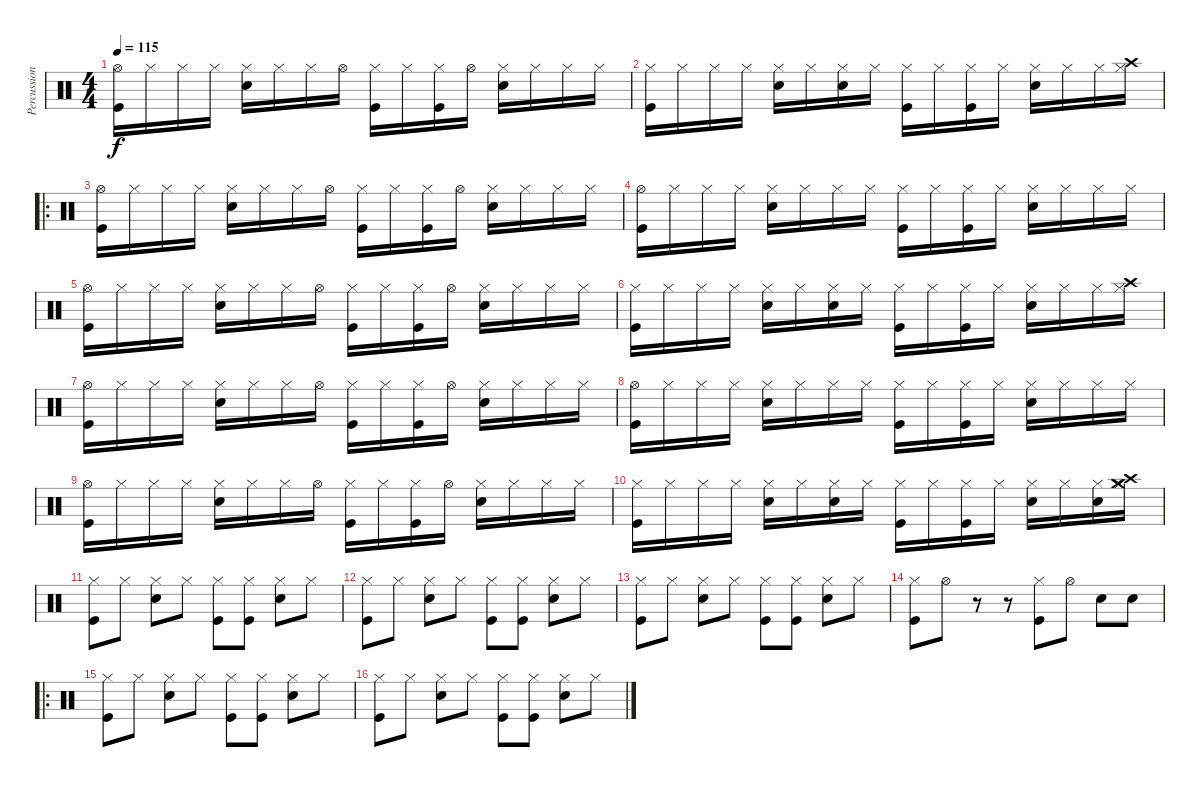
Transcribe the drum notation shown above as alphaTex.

\track ("Percussions" "Percussion") {instrument percussion}
\staff {score}
\articulation defaults
\ts (4 4)
\tempo 115
\clef neutral
\ks c
("Hi-Hat (open)" "Kick (hit)").16{dy f} "Hi-Hat (closed)".16 "Hi-Hat (closed)".16 "Hi-Hat (closed)".16 ("Hi-Hat (closed)" "Snare (hit) 2").16 "Hi-Hat (closed)".16 "Hi-Hat (closed)".16 "Hi-Hat (open)".16 ("Hi-Hat (closed)" "Kick (hit)").16 "Hi-Hat (closed)".16 ("Hi-Hat (closed)" "Kick (hit)").16 "Hi-Hat (open)".16 ("Hi-Hat (closed)" "Snare (hit) 2").16 "Hi-Hat (closed)".16 "Hi-Hat (closed)".16 "Hi-Hat (closed)".16 |
("Hi-Hat (closed)" "Kick (hit)").16 "Hi-Hat (closed)".16 "Hi-Hat (closed)".16 "Hi-Hat (closed)".16 ("Hi-Hat (closed)" "Snare (hit) 2").16 "Hi-Hat (closed)".16 ("Hi-Hat (closed)" "Snare (hit) 2").16 "Hi-Hat (closed)".16 ("Hi-Hat (closed)" "Kick (hit)").16 "Hi-Hat (closed)".16 ("Hi-Hat (closed)" "Kick (hit)").16 "Hi-Hat (closed)".16 ("Hi-Hat (closed)" "Snare (hit) 2").16 "Hi-Hat (closed)".16 "Hi-Hat (closed)".16 ("Crash high (hit)" "Hi-Hat (closed)").16 |
\ro
("Hi-Hat (open)" "Kick (hit)").16 "Hi-Hat (closed)".16 "Hi-Hat (closed)".16 "Hi-Hat (closed)".16 ("Hi-Hat (closed)" "Snare (hit) 2").16 "Hi-Hat (closed)".16 "Hi-Hat (closed)".16 "Hi-Hat (open)".16 ("Hi-Hat (closed)" "Kick (hit)").16 "Hi-Hat (closed)".16 ("Hi-Hat (closed)" "Kick (hit)").16 "Hi-Hat (open)".16 ("Hi-Hat (closed)" "Snare (hit) 2").16 "Hi-Hat (closed)".16 "Hi-Hat (closed)".16 "Hi-Hat (closed)".16 |
("Hi-Hat (open)" "Kick (hit)").16 "Hi-Hat (closed)".16 "Hi-Hat (closed)".16 "Hi-Hat (closed)".16 ("Hi-Hat (closed)" "Snare (hit) 2").16 "Hi-Hat (closed)".16 "Hi-Hat (closed)".16 "Hi-Hat (closed)".16 ("Hi-Hat (closed)" "Kick (hit)").16 "Hi-Hat (closed)".16 ("Hi-Hat (closed)" "Kick (hit)").16 "Hi-Hat (closed)".16 ("Hi-Hat (closed)" "Snare (hit) 2").16 "Hi-Hat (closed)".16 "Hi-Hat (closed)".16 "Hi-Hat (closed)".16 |
("Hi-Hat (open)" "Kick (hit)").16 "Hi-Hat (closed)".16 "Hi-Hat (closed)".16 "Hi-Hat (closed)".16 ("Hi-Hat (closed)" "Snare (hit) 2").16 "Hi-Hat (closed)".16 "Hi-Hat (closed)".16 "Hi-Hat (open)".16 ("Hi-Hat (closed)" "Kick (hit)").16 "Hi-Hat (closed)".16 ("Hi-Hat (closed)" "Kick (hit)").16 "Hi-Hat (open)".16 ("Hi-Hat (closed)" "Snare (hit) 2").16 "Hi-Hat (closed)".16 "Hi-Hat (closed)".16 "Hi-Hat (closed)".16 |
("Hi-Hat (closed)" "Kick (hit)").16 "Hi-Hat (closed)".16 "Hi-Hat (closed)".16 "Hi-Hat (closed)".16 ("Hi-Hat (closed)" "Snare (hit) 2").16 "Hi-Hat (closed)".16 ("Hi-Hat (closed)" "Snare (hit) 2").16 "Hi-Hat (closed)".16 ("Hi-Hat (closed)" "Kick (hit)").16 "Hi-Hat (closed)".16 ("Hi-Hat (closed)" "Kick (hit)").16 "Hi-Hat (closed)".16 ("Hi-Hat (closed)" "Snare (hit) 2").16 "Hi-Hat (closed)".16 "Hi-Hat (closed)".16 ("Crash high (hit)" "Hi-Hat (closed)").16 |
("Hi-Hat (open)" "Kick (hit)").16 "Hi-Hat (closed)".16 "Hi-Hat (closed)".16 "Hi-Hat (closed)".16 ("Hi-Hat (closed)" "Snare (hit) 2").16 "Hi-Hat (closed)".16 "Hi-Hat (closed)".16 "Hi-Hat (open)".16 ("Hi-Hat (closed)" "Kick (hit)").16 "Hi-Hat (closed)".16 ("Hi-Hat (closed)" "Kick (hit)").16 "Hi-Hat (open)".16 ("Hi-Hat (closed)" "Snare (hit) 2").16 "Hi-Hat (closed)".16 "Hi-Hat (closed)".16 "Hi-Hat (closed)".16 |
("Hi-Hat (open)" "Kick (hit)").16 "Hi-Hat (closed)".16 "Hi-Hat (closed)".16 "Hi-Hat (closed)".16 ("Hi-Hat (closed)" "Snare (hit) 2").16 "Hi-Hat (closed)".16 "Hi-Hat (closed)".16 "Hi-Hat (closed)".16 ("Hi-Hat (closed)" "Kick (hit)").16 "Hi-Hat (closed)".16 ("Hi-Hat (closed)" "Kick (hit)").16 "Hi-Hat (closed)".16 ("Hi-Hat (closed)" "Snare (hit) 2").16 "Hi-Hat (closed)".16 "Hi-Hat (closed)".16 "Hi-Hat (closed)".16 |
("Hi-Hat (open)" "Kick (hit)").16 "Hi-Hat (closed)".16 "Hi-Hat (closed)".16 "Hi-Hat (closed)".16 ("Hi-Hat (closed)" "Snare (hit) 2").16 "Hi-Hat (closed)".16 "Hi-Hat (closed)".16 "Hi-Hat (open)".16 ("Hi-Hat (closed)" "Kick (hit)").16 "Hi-Hat (closed)".16 ("Hi-Hat (closed)" "Kick (hit)").16 "Hi-Hat (open)".16 ("Hi-Hat (closed)" "Snare (hit) 2").16 "Hi-Hat (closed)".16 "Hi-Hat (closed)".16 "Hi-Hat (closed)".16 |
("Hi-Hat (closed)" "Kick (hit)").16 "Hi-Hat (closed)".16 "Hi-Hat (closed)".16 "Hi-Hat (closed)".16 ("Hi-Hat (closed)" "Snare (hit) 2").16 "Hi-Hat (closed)".16 ("Hi-Hat (closed)" "Snare (hit) 2").16 "Hi-Hat (closed)".16 ("Hi-Hat (closed)" "Kick (hit)").16 "Hi-Hat (closed)".16 ("Hi-Hat (closed)" "Kick (hit)").16 "Hi-Hat (closed)".16 ("Hi-Hat (closed)" "Snare (hit) 2").16 "Hi-Hat (closed)".16 ("Hi-Hat (closed)" "Snare (hit) 2").16 ("Crash high (hit)" "Hi-Hat (closed)" "Crash medium (hit)").16 |
("Hi-Hat (closed)" "Kick (hit)").8 "Hi-Hat (closed)".8 ("Hi-Hat (closed)" "Snare (hit) 2").8 "Hi-Hat (closed)".8 ("Hi-Hat (closed)" "Kick (hit)").8 ("Hi-Hat (closed)" "Kick (hit)").8 ("Hi-Hat (closed)" "Snare (hit) 2").8 "Hi-Hat (closed)".8 |
("Hi-Hat (closed)" "Kick (hit)").8 "Hi-Hat (closed)".8 ("Hi-Hat (closed)" "Snare (hit) 2").8 "Hi-Hat (closed)".8 ("Hi-Hat (closed)" "Kick (hit)").8 ("Hi-Hat (closed)" "Kick (hit)").8 ("Hi-Hat (closed)" "Snare (hit) 2").8 "Hi-Hat (closed)".8 |
("Hi-Hat (closed)" "Kick (hit)").8 "Hi-Hat (closed)".8 ("Hi-Hat (closed)" "Snare (hit) 2").8 "Hi-Hat (closed)".8 ("Hi-Hat (closed)" "Kick (hit)").8 ("Hi-Hat (closed)" "Kick (hit)").8 ("Hi-Hat (closed)" "Snare (hit) 2").8 "Hi-Hat (closed)".8 |
("Hi-Hat (closed)" "Kick (hit)").8 "Hi-Hat (open)".8 r.8 r.8 ("Hi-Hat (closed)" "Kick (hit)").8 "Hi-Hat (open)".8 "Snare (hit) 2".8 "Snare (hit) 2".8 |
\ro
("Hi-Hat (closed)" "Kick (hit)").8 "Hi-Hat (closed)".8 ("Hi-Hat (closed)" "Snare (hit) 2").8 "Hi-Hat (closed)".8 ("Hi-Hat (closed)" "Kick (hit)").8 ("Hi-Hat (closed)" "Kick (hit)").8 ("Hi-Hat (closed)" "Snare (hit) 2").8 "Hi-Hat (closed)".8 |
("Hi-Hat (closed)" "Kick (hit)").8 "Hi-Hat (closed)".8 ("Hi-Hat (closed)" "Snare (hit) 2").8 "Hi-Hat (closed)".8 ("Hi-Hat (closed)" "Kick (hit)").8 ("Hi-Hat (closed)" "Kick (hit)").8 ("Hi-Hat (closed)" "Snare (hit) 2").8 "Hi-Hat (closed)".8
